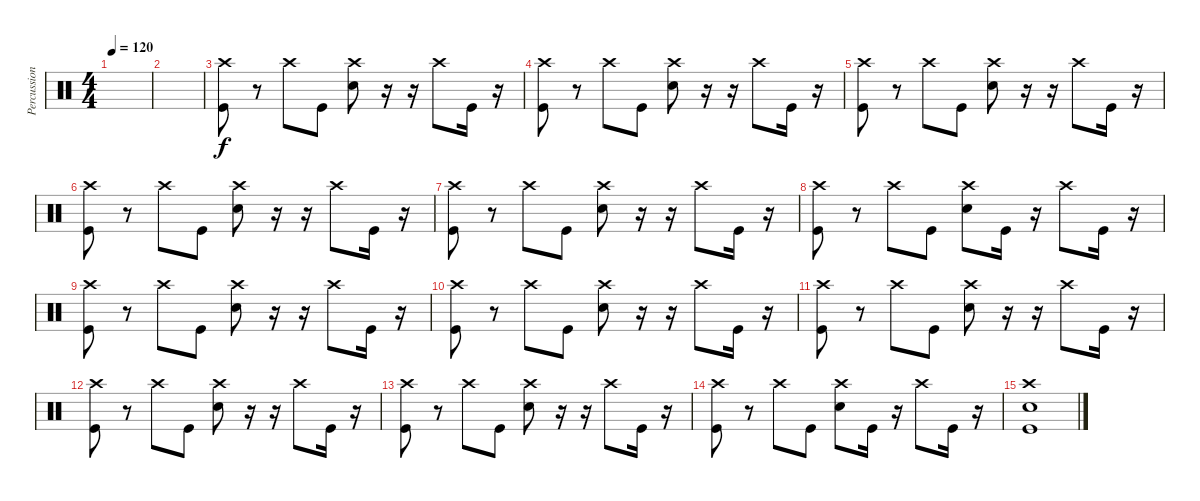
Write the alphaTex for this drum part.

\track ("Percussion" "Percussion") {instrument percussion}
\staff {score}
\articulation defaults
\ts (4 4)
\tempo 120
\clef neutral
\ks c
|
|
("Crash high (hit)" "Kick (hit)").8 r.8 "Crash high (hit)".8 "Kick (hit)".8 ("Crash high (hit)" "Snare (hit) 2").8 r.16 r.16 "Crash high (hit)".8 "Kick (hit)".16 r.16 |
("Crash high (hit)" "Kick (hit)").8 r.8 "Crash high (hit)".8 "Kick (hit)".8 ("Crash high (hit)" "Snare (hit) 2").8 r.16 r.16 "Crash high (hit)".8 "Kick (hit)".16 r.16 |
("Crash high (hit)" "Kick (hit)").8 r.8 "Crash high (hit)".8 "Kick (hit)".8 ("Crash high (hit)" "Snare (hit) 2").8 r.16 r.16 "Crash high (hit)".8 "Kick (hit)".16 r.16 |
("Crash high (hit)" "Kick (hit)").8 r.8 "Crash high (hit)".8 "Kick (hit)".8 ("Crash high (hit)" "Snare (hit) 2").8 r.16 r.16 "Crash high (hit)".8 "Kick (hit)".16 r.16 |
("Crash high (hit)" "Kick (hit)").8 r.8 "Crash high (hit)".8 "Kick (hit)".8 ("Crash high (hit)" "Snare (hit) 2").8 r.16 r.16 "Crash high (hit)".8 "Kick (hit)".16 r.16 |
("Crash high (hit)" "Kick (hit)").8 r.8 "Crash high (hit)".8 "Kick (hit)".8 ("Crash high (hit)" "Snare (hit) 2").8 "Kick (hit)".16 r.16 "Crash high (hit)".8 "Kick (hit)".16 r.16 |
("Crash high (hit)" "Kick (hit)").8 r.8 "Crash high (hit)".8 "Kick (hit)".8 ("Crash high (hit)" "Snare (hit) 2").8 r.16 r.16 "Crash high (hit)".8 "Kick (hit)".16 r.16 |
("Crash high (hit)" "Kick (hit)").8 r.8 "Crash high (hit)".8 "Kick (hit)".8 ("Crash high (hit)" "Snare (hit) 2").8 r.16 r.16 "Crash high (hit)".8 "Kick (hit)".16 r.16 |
("Crash high (hit)" "Kick (hit)").8 r.8 "Crash high (hit)".8 "Kick (hit)".8 ("Crash high (hit)" "Snare (hit) 2").8 r.16 r.16 "Crash high (hit)".8 "Kick (hit)".16 r.16 |
("Crash high (hit)" "Kick (hit)").8 r.8 "Crash high (hit)".8 "Kick (hit)".8 ("Crash high (hit)" "Snare (hit) 2").8 r.16 r.16 "Crash high (hit)".8 "Kick (hit)".16 r.16 |
("Crash high (hit)" "Kick (hit)").8 r.8 "Crash high (hit)".8 "Kick (hit)".8 ("Crash high (hit)" "Snare (hit) 2").8 r.16 r.16 "Crash high (hit)".8 "Kick (hit)".16 r.16 |
("Crash high (hit)" "Kick (hit)").8 r.8 "Crash high (hit)".8 "Kick (hit)".8 ("Crash high (hit)" "Snare (hit) 2").8 "Kick (hit)".16 r.16 "Crash high (hit)".8 "Kick (hit)".16 r.16 |
("Crash high (hit)" "Snare (hit) 2" "Kick (hit)").1
